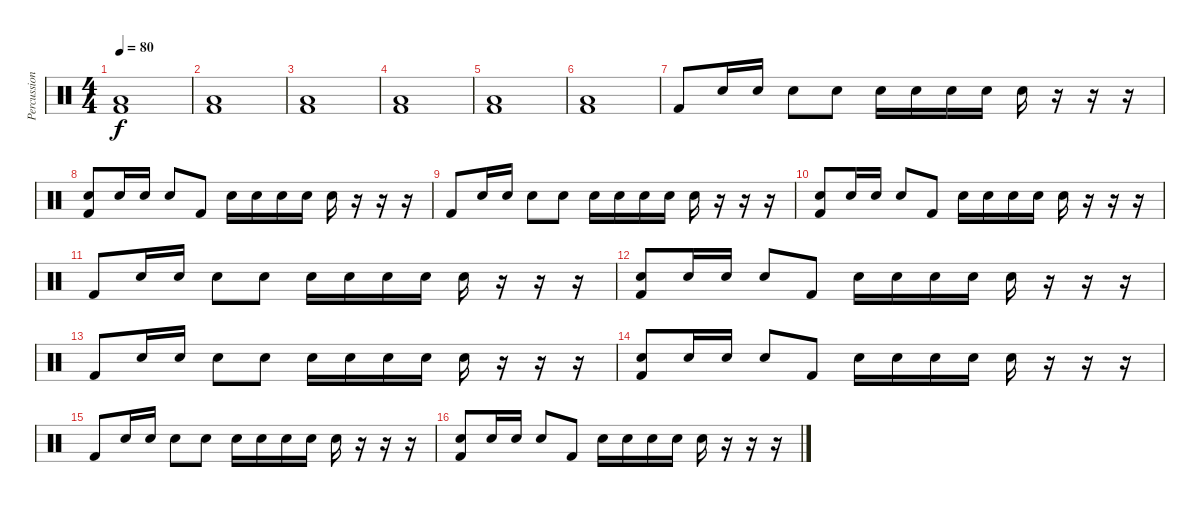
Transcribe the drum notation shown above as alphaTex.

\track ("Percussion" "Percussion") {instrument percussion}
\staff {score}
\articulation defaults
\ts (4 4)
\tempo 80
\clef neutral
\ks c
("Low Floor Tom (hit)" "Kick (hit) 2").1{dy f} |
("Low Floor Tom (hit)" "Kick (hit) 2").1 |
("Low Floor Tom (hit)" "Kick (hit) 2").1 |
("Low Floor Tom (hit)" "Kick (hit) 2").1 |
("Low Floor Tom (hit)" "Kick (hit) 2").1 |
("Low Floor Tom (hit)" "Kick (hit) 2").1 |
"Kick (hit) 2".8 "Snare (hit) 2".16 "Snare (hit) 2".16 "Snare (hit) 2".8 "Snare (hit) 2".8 "Snare (hit) 2".16 "Snare (hit) 2".16 "Snare (hit) 2".16 "Snare (hit) 2".16 "Snare (hit) 2".16 r.16 r.16 r.16 |
("Snare (hit) 2" "Kick (hit) 2").8 "Snare (hit) 2".16 "Snare (hit) 2".16 "Snare (hit) 2".8 "Kick (hit) 2".8 "Snare (hit) 2".16 "Snare (hit) 2".16 "Snare (hit) 2".16 "Snare (hit) 2".16 "Snare (hit) 2".16 r.16 r.16 r.16 |
"Kick (hit) 2".8 "Snare (hit) 2".16 "Snare (hit) 2".16 "Snare (hit) 2".8 "Snare (hit) 2".8 "Snare (hit) 2".16 "Snare (hit) 2".16 "Snare (hit) 2".16 "Snare (hit) 2".16 "Snare (hit) 2".16 r.16 r.16 r.16 |
("Snare (hit) 2" "Kick (hit) 2").8 "Snare (hit) 2".16 "Snare (hit) 2".16 "Snare (hit) 2".8 "Kick (hit) 2".8 "Snare (hit) 2".16 "Snare (hit) 2".16 "Snare (hit) 2".16 "Snare (hit) 2".16 "Snare (hit) 2".16 r.16 r.16 r.16 |
"Kick (hit) 2".8 "Snare (hit) 2".16 "Snare (hit) 2".16 "Snare (hit) 2".8 "Snare (hit) 2".8 "Snare (hit) 2".16 "Snare (hit) 2".16 "Snare (hit) 2".16 "Snare (hit) 2".16 "Snare (hit) 2".16 r.16 r.16 r.16 |
("Snare (hit) 2" "Kick (hit) 2").8 "Snare (hit) 2".16 "Snare (hit) 2".16 "Snare (hit) 2".8 "Kick (hit) 2".8 "Snare (hit) 2".16 "Snare (hit) 2".16 "Snare (hit) 2".16 "Snare (hit) 2".16 "Snare (hit) 2".16 r.16 r.16 r.16 |
"Kick (hit) 2".8 "Snare (hit) 2".16 "Snare (hit) 2".16 "Snare (hit) 2".8 "Snare (hit) 2".8 "Snare (hit) 2".16 "Snare (hit) 2".16 "Snare (hit) 2".16 "Snare (hit) 2".16 "Snare (hit) 2".16 r.16 r.16 r.16 |
("Snare (hit) 2" "Kick (hit) 2").8 "Snare (hit) 2".16 "Snare (hit) 2".16 "Snare (hit) 2".8 "Kick (hit) 2".8 "Snare (hit) 2".16 "Snare (hit) 2".16 "Snare (hit) 2".16 "Snare (hit) 2".16 "Snare (hit) 2".16 r.16 r.16 r.16 |
"Kick (hit) 2".8 "Snare (hit) 2".16 "Snare (hit) 2".16 "Snare (hit) 2".8 "Snare (hit) 2".8 "Snare (hit) 2".16 "Snare (hit) 2".16 "Snare (hit) 2".16 "Snare (hit) 2".16 "Snare (hit) 2".16 r.16 r.16 r.16 |
("Snare (hit) 2" "Kick (hit) 2").8 "Snare (hit) 2".16 "Snare (hit) 2".16 "Snare (hit) 2".8 "Kick (hit) 2".8 "Snare (hit) 2".16 "Snare (hit) 2".16 "Snare (hit) 2".16 "Snare (hit) 2".16 "Snare (hit) 2".16 r.16 r.16 r.16
